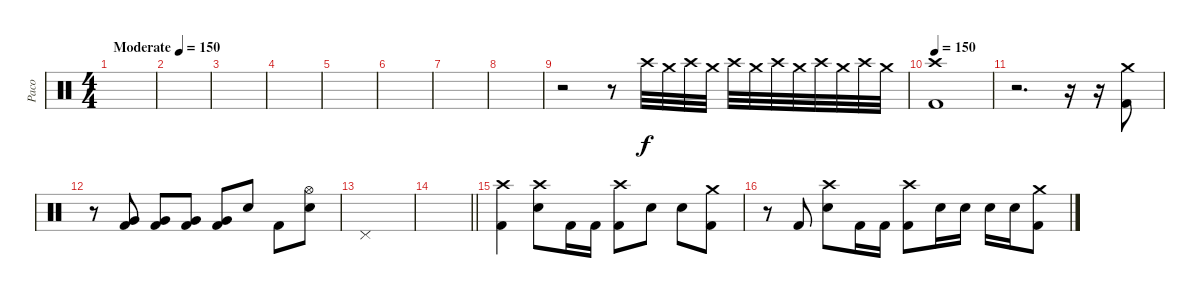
\track ("Paco" "Paco") {instrument percussion}
\staff {score}
\articulation defaults
\ts (4 4)
\tempo (150 "Moderate")
\tempo 130
\tempo (150 "Moderate")
\clef neutral
\ks c
|
|
|
|
|
|
|
|
r.2 r.8 "Crash high (hit)".32{volume 4} "Crash medium (hit)".32{volume 13} "Crash high (hit)".32 "Crash medium (hit)".32 "Crash high (hit)".32 "Crash medium (hit)".32 "Crash high (hit)".32 "Crash medium (hit)".32 "Crash high (hit)".32 "Crash medium (hit)".32 "Crash high (hit)".32 "Crash medium (hit)".32 |
\tempo 150
("Crash high (hit)" "Kick (hit) 2").1 |
r.2{d} r.16 r.16 ("Crash medium (hit)" "Kick (hit) 2").8 |
r.8 ("Very Low Tom (hit)" "Kick (hit) 2").8 ("Very Low Tom (hit)" "Kick (hit) 2").8 ("Very Low Tom (hit)" "Kick (hit) 2").8 ("Very Low Tom (hit)" "Kick (hit) 2").8 "Electric Snare (hit)".8 "Kick (hit) 2".8 ("Hi-Hat (open)" "Electric Snare (hit)").8 |
"Pedal Hi-Hat (hit)".1 |
\barLineRight lightlight
|
("Crash high (hit)" "Kick (hit) 2").4 ("Crash high (hit)" "Electric Snare (hit)").8 "Kick (hit) 2".16 "Kick (hit) 2".16 ("Crash high (hit)" "Kick (hit) 2").8 "Electric Snare (hit)".8 "Electric Snare (hit)".8 ("Crash medium (hit)" "Kick (hit) 2").8 |
r.8 "Kick (hit) 2".8 ("Crash high (hit)" "Electric Snare (hit)").8 "Kick (hit) 2".16 "Kick (hit) 2".16 ("Crash high (hit)" "Kick (hit) 2").8 "Electric Snare (hit)".16 "Electric Snare (hit)".16 "Electric Snare (hit)".16 "Electric Snare (hit)".16 ("Crash medium (hit)" "Kick (hit) 2").8
